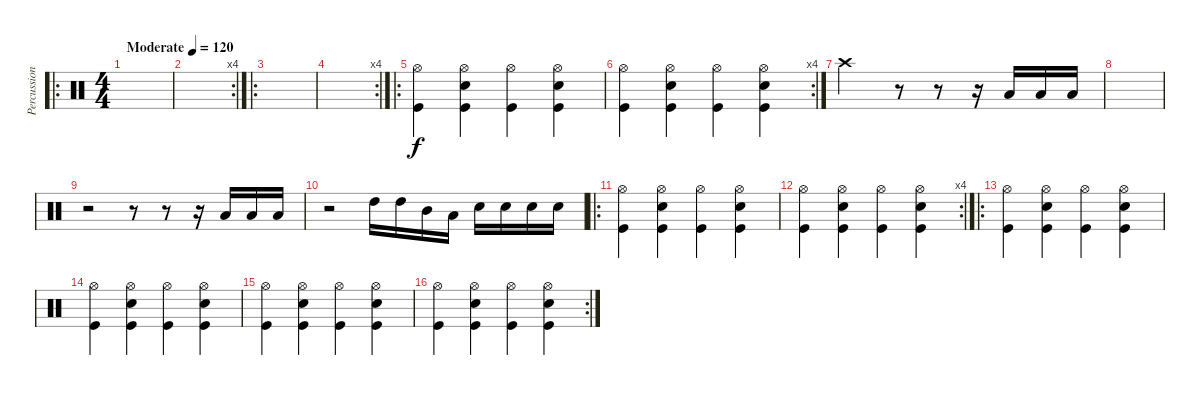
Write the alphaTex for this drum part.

\track ("Percussion" "Percussion") {instrument percussion}
\staff {score}
\articulation defaults
\ro
\ts (4 4)
\tempo (120 "Moderate")
\clef neutral
\ks c
|
\rc 4
|
\ro
|
\rc 4
|
\ro
("Hi-Hat (open)" "Kick (hit)").4 ("Hi-Hat (open)" "Electric Snare (hit)" "Kick (hit)").4 ("Hi-Hat (open)" "Kick (hit)").4 ("Hi-Hat (open)" "Electric Snare (hit)" "Kick (hit)").4 |
\rc 4
("Hi-Hat (open)" "Kick (hit)").4 ("Hi-Hat (open)" "Electric Snare (hit)" "Kick (hit)").4 ("Hi-Hat (open)" "Kick (hit)").4 ("Hi-Hat (open)" "Electric Snare (hit)" "Kick (hit)").4 |
"Crash high (hit)".2 r.8 r.8 r.16 "Low Tom (hit)".16 "Low Tom (hit)".16 "Low Tom (hit)".16 |
|
r.2 r.8 r.8 r.16 "Low Tom (hit)".16 "Low Tom (hit)".16 "Low Tom (hit)".16 |
r.2 "High Tom (hit)".16 "High Tom (hit)".16 "Mid Tom (hit)".16 "Low Tom (hit)".16 "Electric Snare (hit)".16 "Electric Snare (hit)".16 "Electric Snare (hit)".16 "Electric Snare (hit)".16 |
\ro
("Hi-Hat (open)" "Kick (hit)").4 ("Hi-Hat (open)" "Electric Snare (hit)" "Kick (hit)").4 ("Hi-Hat (open)" "Kick (hit)").4 ("Hi-Hat (open)" "Electric Snare (hit)" "Kick (hit)").4 |
\rc 4
("Hi-Hat (open)" "Kick (hit)").4 ("Hi-Hat (open)" "Electric Snare (hit)" "Kick (hit)").4 ("Hi-Hat (open)" "Kick (hit)").4 ("Hi-Hat (open)" "Electric Snare (hit)" "Kick (hit)").4 |
\ro
("Hi-Hat (open)" "Kick (hit)").4 ("Hi-Hat (open)" "Electric Snare (hit)" "Kick (hit)").4 ("Hi-Hat (open)" "Kick (hit)").4 ("Hi-Hat (open)" "Electric Snare (hit)" "Kick (hit)").4 |
("Hi-Hat (open)" "Kick (hit)").4 ("Hi-Hat (open)" "Electric Snare (hit)" "Kick (hit)").4 ("Hi-Hat (open)" "Kick (hit)").4 ("Hi-Hat (open)" "Electric Snare (hit)" "Kick (hit)").4 |
("Hi-Hat (open)" "Kick (hit)").4 ("Hi-Hat (open)" "Electric Snare (hit)" "Kick (hit)").4 ("Hi-Hat (open)" "Kick (hit)").4 ("Hi-Hat (open)" "Electric Snare (hit)" "Kick (hit)").4 |
\rc 2
("Hi-Hat (open)" "Kick (hit)").4 ("Hi-Hat (open)" "Electric Snare (hit)" "Kick (hit)").4 ("Hi-Hat (open)" "Kick (hit)").4 ("Hi-Hat (open)" "Electric Snare (hit)" "Kick (hit)").4
